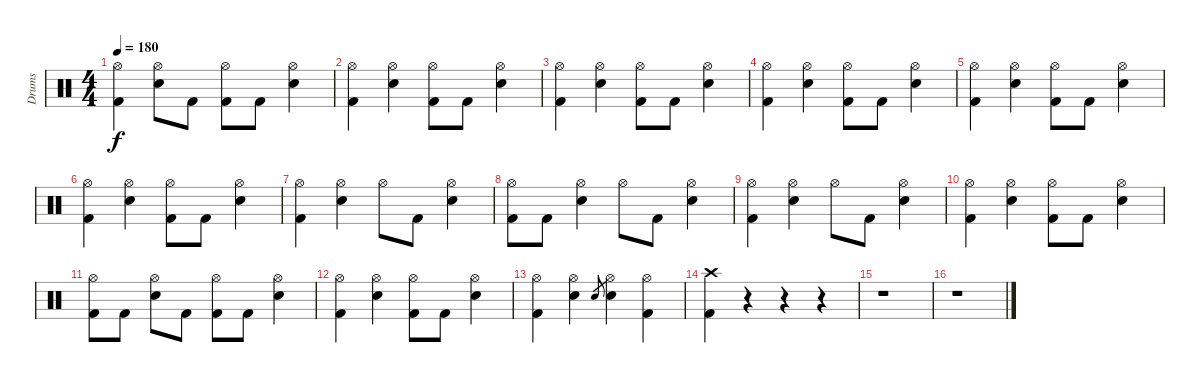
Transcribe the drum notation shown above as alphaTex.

\track ("Drums" "Drums") {instrument percussion}
\staff {score}
\articulation defaults
\ts (4 4)
\tempo 180
\clef neutral
\ks c
("Hi-Hat (open)" "Kick (hit) 2").4{dy f} ("Hi-Hat (open)" "Electric Snare (hit)").8 "Kick (hit) 2".8 ("Hi-Hat (open)" "Kick (hit) 2").8 "Kick (hit) 2".8 ("Hi-Hat (open)" "Electric Snare (hit)").4 |
("Hi-Hat (open)" "Kick (hit) 2").4 ("Hi-Hat (open)" "Electric Snare (hit)").4 ("Hi-Hat (open)" "Kick (hit) 2").8 "Kick (hit) 2".8 ("Hi-Hat (open)" "Electric Snare (hit)").4 |
("Hi-Hat (open)" "Kick (hit) 2").4 ("Hi-Hat (open)" "Electric Snare (hit)").4 ("Hi-Hat (open)" "Kick (hit) 2").8 "Kick (hit) 2".8 ("Hi-Hat (open)" "Electric Snare (hit)").4 |
("Hi-Hat (open)" "Kick (hit) 2").4 ("Hi-Hat (open)" "Electric Snare (hit)").4 ("Hi-Hat (open)" "Kick (hit) 2").8 "Kick (hit) 2".8 ("Hi-Hat (open)" "Electric Snare (hit)").4 |
("Hi-Hat (open)" "Kick (hit) 2").4 ("Hi-Hat (open)" "Electric Snare (hit)").4 ("Hi-Hat (open)" "Kick (hit) 2").8 "Kick (hit) 2".8 ("Hi-Hat (open)" "Electric Snare (hit)").4 |
("Hi-Hat (open)" "Kick (hit) 2").4 ("Hi-Hat (open)" "Electric Snare (hit)").4 ("Hi-Hat (open)" "Kick (hit) 2").8 "Kick (hit) 2".8 ("Hi-Hat (open)" "Electric Snare (hit)").4 |
("Hi-Hat (open)" "Kick (hit) 2").4 ("Hi-Hat (open)" "Electric Snare (hit)").4 "Hi-Hat (open)".8 "Kick (hit) 2".8 ("Hi-Hat (open)" "Electric Snare (hit)").4 |
("Hi-Hat (open)" "Kick (hit) 2").8 "Kick (hit) 2".8 ("Hi-Hat (open)" "Electric Snare (hit)").4 "Hi-Hat (open)".8 "Kick (hit) 2".8 ("Hi-Hat (open)" "Electric Snare (hit)").4 |
("Hi-Hat (open)" "Kick (hit) 2").4 ("Hi-Hat (open)" "Electric Snare (hit)").4 "Hi-Hat (open)".8 "Kick (hit) 2".8 ("Hi-Hat (open)" "Electric Snare (hit)").4 |
("Hi-Hat (open)" "Kick (hit) 2").4 ("Hi-Hat (open)" "Electric Snare (hit)").4 ("Hi-Hat (open)" "Kick (hit) 2").8 "Kick (hit) 2".8 ("Hi-Hat (open)" "Electric Snare (hit)").4 |
("Hi-Hat (open)" "Kick (hit) 2").8 "Kick (hit) 2".8 ("Hi-Hat (open)" "Electric Snare (hit)").8 "Kick (hit) 2".8 ("Hi-Hat (open)" "Kick (hit) 2").8 "Kick (hit) 2".8 ("Hi-Hat (open)" "Electric Snare (hit)").4 |
("Hi-Hat (open)" "Kick (hit) 2").4 ("Hi-Hat (open)" "Electric Snare (hit)").4 ("Hi-Hat (open)" "Kick (hit) 2").8 "Kick (hit) 2".8 ("Hi-Hat (open)" "Electric Snare (hit)").4 |
("Hi-Hat (open)" "Kick (hit) 2").4 ("Hi-Hat (open)" "Electric Snare (hit)").4 "Electric Snare (hit)".8{gr} ("Hi-Hat (open)" "Electric Snare (hit)").4 ("Hi-Hat (open)" "Kick (hit) 2").4 |
("Crash high (hit)" "Kick (hit) 2").4 r.4 r.4 r.4 |
r.1 |
r.1
